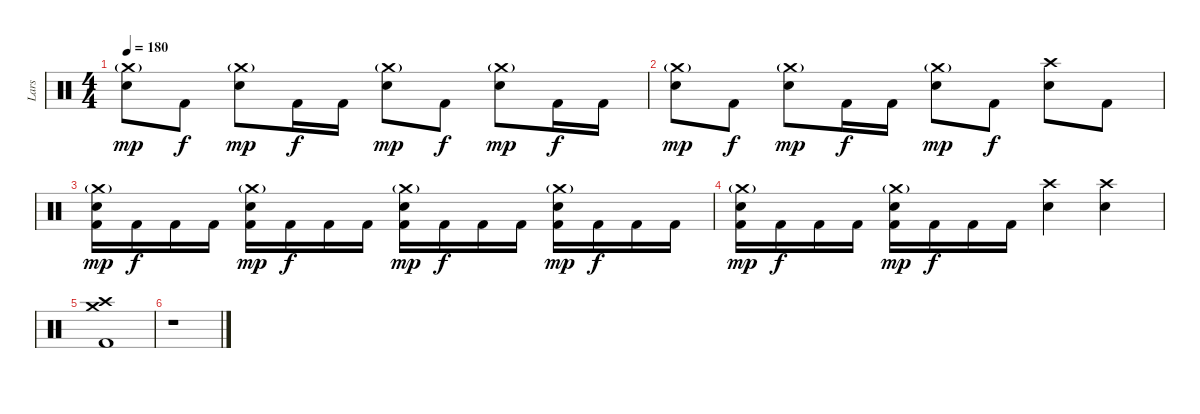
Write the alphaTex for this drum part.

\track ("Lars" "Lars") {instrument percussion}
\staff {score}
\articulation defaults
\ts (4 4)
\tempo 180
\clef neutral
\ks c
("Crash medium (hit)"{g} "Electric Snare (hit)").8{dy mp} "Kick (hit) 2".8{dy f} ("Crash medium (hit)"{g} "Electric Snare (hit)").8{dy mp} "Kick (hit) 2".16{dy f} "Kick (hit) 2".16 ("Crash medium (hit)"{g} "Electric Snare (hit)").8{dy mp} "Kick (hit) 2".8{dy f} ("Crash medium (hit)"{g} "Electric Snare (hit)").8{dy mp} "Kick (hit) 2".16{dy f} "Kick (hit) 2".16 |
("Crash medium (hit)"{g} "Electric Snare (hit)").8{dy mp} "Kick (hit) 2".8{dy f} ("Crash medium (hit)"{g} "Electric Snare (hit)").8{dy mp} "Kick (hit) 2".16{dy f} "Kick (hit) 2".16 ("Crash medium (hit)"{g} "Electric Snare (hit)").8{dy mp} "Kick (hit) 2".8{dy f} ("Crash high (hit)" "Electric Snare (hit)").8 "Kick (hit) 2".8 |
("Crash medium (hit)"{g} "Electric Snare (hit)" "Kick (hit) 2").16{dy mp} "Kick (hit) 2".16{dy f} "Kick (hit) 2".16 "Kick (hit) 2".16 ("Crash medium (hit)"{g} "Electric Snare (hit)" "Kick (hit) 2").16{dy mp} "Kick (hit) 2".16{dy f} "Kick (hit) 2".16 "Kick (hit) 2".16 ("Crash medium (hit)"{g} "Electric Snare (hit)" "Kick (hit) 2").16{dy mp} "Kick (hit) 2".16{dy f} "Kick (hit) 2".16 "Kick (hit) 2".16 ("Crash medium (hit)"{g} "Electric Snare (hit)" "Kick (hit) 2").16{dy mp} "Kick (hit) 2".16{dy f} "Kick (hit) 2".16 "Kick (hit) 2".16 |
("Crash medium (hit)"{g} "Electric Snare (hit)" "Kick (hit) 2").16{dy mp} "Kick (hit) 2".16{dy f} "Kick (hit) 2".16 "Kick (hit) 2".16 ("Crash medium (hit)"{g} "Electric Snare (hit)" "Kick (hit) 2").16{dy mp} "Kick (hit) 2".16{dy f} "Kick (hit) 2".16 "Kick (hit) 2".16 ("Crash high (hit)" "Electric Snare (hit)").4 ("Crash high (hit)" "Electric Snare (hit)").4 |
("Crash high (hit)" "Crash medium (hit)" "Kick (hit) 2").1 |
r.1
